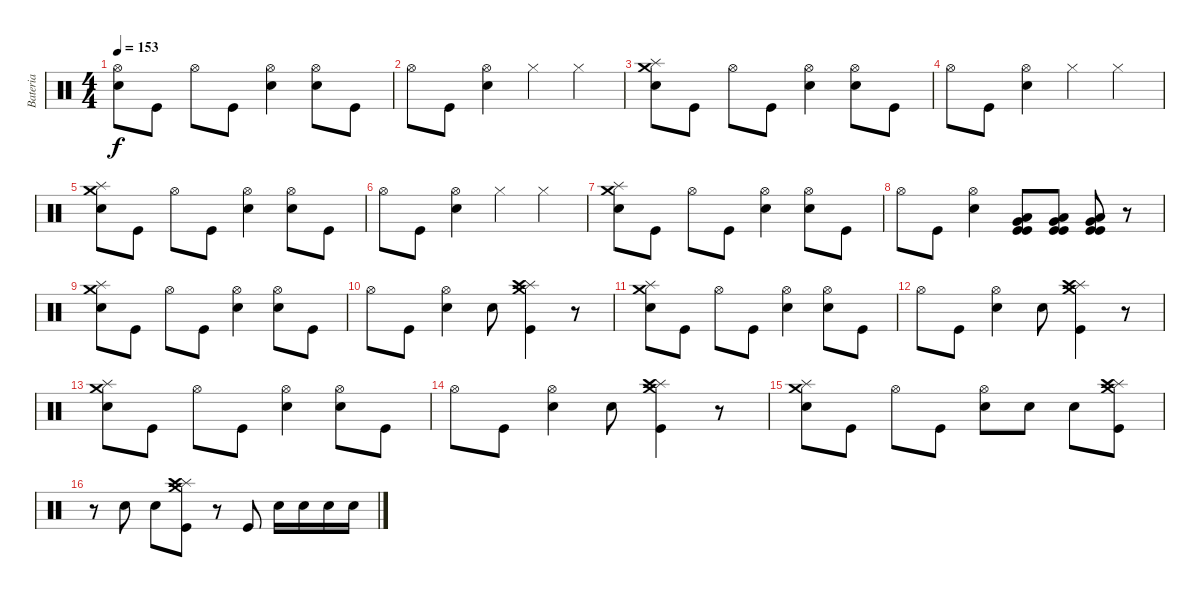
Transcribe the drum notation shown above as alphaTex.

\track ("Bateria" "Bateria") {instrument percussion}
\staff {score}
\articulation defaults
\ts (4 4)
\tempo 153
\clef neutral
\ks c
("Snare (hit) 2" "Hi-Hat (open)").8{dy f} "Kick (hit)".8 "Hi-Hat (open)".8 "Kick (hit)".8 ("Hi-Hat (open)" "Snare (hit) 2").4 ("Hi-Hat (open)" "Snare (hit) 2").8 "Kick (hit)".8 |
"Hi-Hat (open)".8 "Kick (hit)".8 ("Snare (hit) 2" "Hi-Hat (open)").4 "Hi-Hat (closed)".4 "Hi-Hat (closed)".4 |
("Snare (hit) 2" "Crash medium (hit)" "Splash (hit)").8 "Kick (hit)".8 "Hi-Hat (open)".8 "Kick (hit)".8 ("Hi-Hat (open)" "Snare (hit) 2").4 ("Hi-Hat (open)" "Snare (hit) 2").8 "Kick (hit)".8 |
"Hi-Hat (open)".8 "Kick (hit)".8 ("Snare (hit) 2" "Hi-Hat (open)").4 "Hi-Hat (closed)".4 "Hi-Hat (closed)".4 |
("Snare (hit) 2" "Crash medium (hit)" "Splash (hit)").8 "Kick (hit)".8 "Hi-Hat (open)".8 "Kick (hit)".8 ("Hi-Hat (open)" "Snare (hit) 2").4 ("Hi-Hat (open)" "Snare (hit) 2").8 "Kick (hit)".8 |
"Hi-Hat (open)".8 "Kick (hit)".8 ("Snare (hit) 2" "Hi-Hat (open)").4 "Hi-Hat (closed)".4 "Hi-Hat (closed)".4 |
("Snare (hit) 2" "Crash medium (hit)" "Splash (hit)").8 "Kick (hit)".8 "Hi-Hat (open)".8 "Kick (hit)".8 ("Hi-Hat (open)" "Snare (hit) 2").4 ("Hi-Hat (open)" "Snare (hit) 2").8 "Kick (hit)".8 |
"Hi-Hat (open)".8 "Kick (hit)".8 ("Snare (hit) 2" "Hi-Hat (open)").4 ("Kick (hit)" "Kick (hit)" "Very Low Tom (hit)" "Low Tom (hit)").8 ("Kick (hit)" "Kick (hit)" "Very Low Tom (hit)" "Low Tom (hit)").8 ("Kick (hit)" "Kick (hit)" "Very Low Tom (hit)" "Low Tom (hit)").8 r.8 |
("Snare (hit) 2" "Crash medium (hit)" "Splash (hit)").8 "Kick (hit)".8 "Hi-Hat (open)".8 "Kick (hit)".8 ("Hi-Hat (open)" "Snare (hit) 2").4 ("Hi-Hat (open)" "Snare (hit) 2").8 "Kick (hit)".8 |
"Hi-Hat (open)".8 "Kick (hit)".8 ("Snare (hit) 2" "Hi-Hat (open)").4 "Snare (hit) 2".8 ("Crash medium (hit)" "Splash (hit)" "Crash high (hit)" "Kick (hit)").4 r.8 |
("Snare (hit) 2" "Crash medium (hit)" "Splash (hit)").8 "Kick (hit)".8 "Hi-Hat (open)".8 "Kick (hit)".8 ("Hi-Hat (open)" "Snare (hit) 2").4 ("Hi-Hat (open)" "Snare (hit) 2").8 "Kick (hit)".8 |
"Hi-Hat (open)".8 "Kick (hit)".8 ("Snare (hit) 2" "Hi-Hat (open)").4 "Snare (hit) 2".8 ("Crash medium (hit)" "Splash (hit)" "Crash high (hit)" "Kick (hit)").4 r.8 |
("Snare (hit) 2" "Crash medium (hit)" "Splash (hit)").8 "Kick (hit)".8 "Hi-Hat (open)".8 "Kick (hit)".8 ("Hi-Hat (open)" "Snare (hit) 2").4 ("Hi-Hat (open)" "Snare (hit) 2").8 "Kick (hit)".8 |
"Hi-Hat (open)".8 "Kick (hit)".8 ("Snare (hit) 2" "Hi-Hat (open)").4 "Snare (hit) 2".8 ("Crash medium (hit)" "Splash (hit)" "Crash high (hit)" "Kick (hit)").4 r.8 |
("Snare (hit) 2" "Crash medium (hit)" "Splash (hit)").8 "Kick (hit)".8 "Hi-Hat (open)".8 "Kick (hit)".8 ("Hi-Hat (open)" "Snare (hit) 2").8 "Snare (hit) 2".8 "Snare (hit) 2".8 ("Crash medium (hit)" "Splash (hit)" "Crash high (hit)" "Kick (hit)").8 |
r.8 "Snare (hit) 2".8 "Snare (hit) 2".8 ("Kick (hit)" "Crash medium (hit)" "Splash (hit)" "Crash high (hit)").8 r.8 "Kick (hit)".8 "Snare (hit) 2".16 "Snare (hit) 2".16 "Snare (hit) 2".16 "Snare (hit) 2".16
